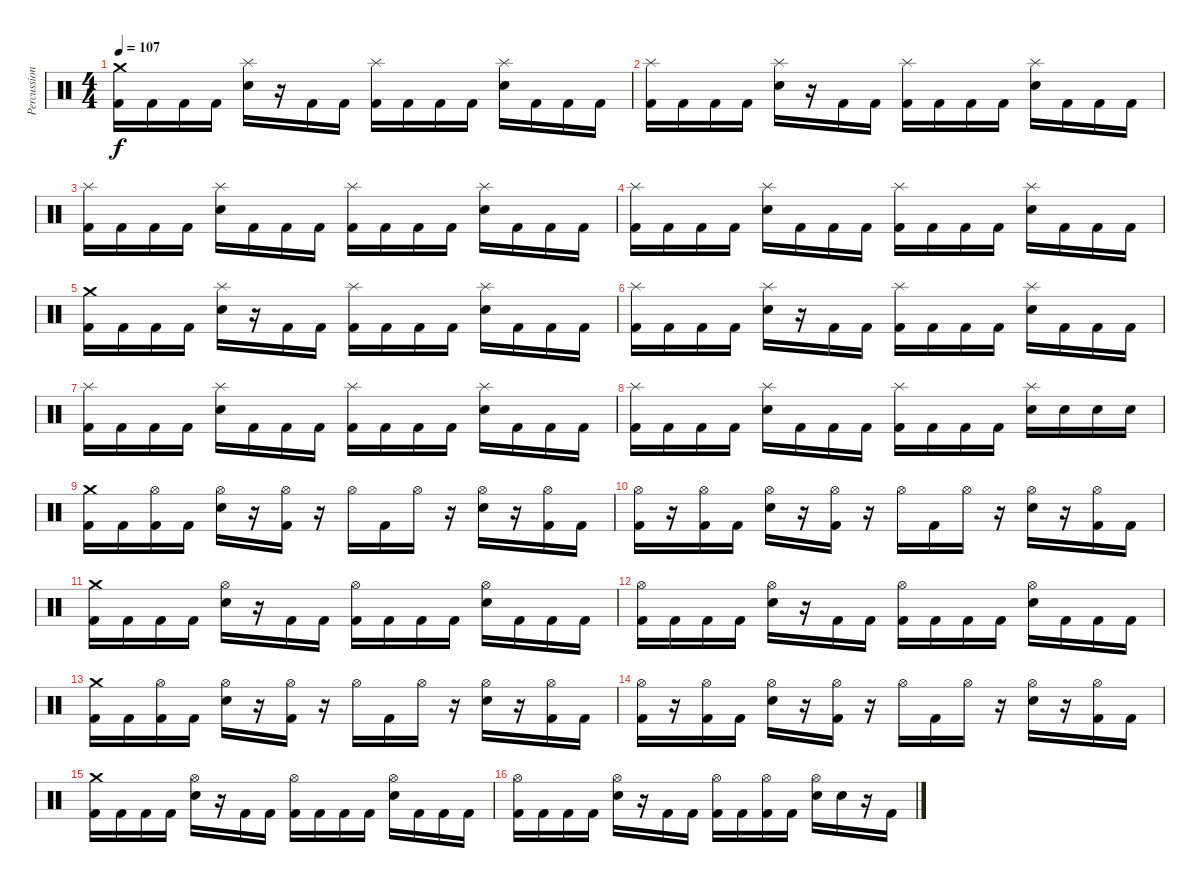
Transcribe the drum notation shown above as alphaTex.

\track ("Percussion" "Percussion") {instrument percussion}
\staff {score}
\articulation defaults
\ts (4 4)
\tempo 107
\clef neutral
\ks c
("Crash medium (hit)" "Kick (hit) 2").16{dy f} "Kick (hit) 2".16 "Kick (hit) 2".16 "Kick (hit) 2".16 ("Splash (hit)" "Electric Snare (hit)").16 r.16 "Kick (hit) 2".16 "Kick (hit) 2".16 ("Splash (hit)" "Kick (hit) 2").16 "Kick (hit) 2".16 "Kick (hit) 2".16 "Kick (hit) 2".16 ("Splash (hit)" "Electric Snare (hit)").16 "Kick (hit) 2".16 "Kick (hit) 2".16 "Kick (hit) 2".16 |
("Splash (hit)" "Kick (hit) 2").16 "Kick (hit) 2".16 "Kick (hit) 2".16 "Kick (hit) 2".16 ("Splash (hit)" "Electric Snare (hit)").16 r.16 "Kick (hit) 2".16 "Kick (hit) 2".16 ("Splash (hit)" "Kick (hit) 2").16 "Kick (hit) 2".16 "Kick (hit) 2".16 "Kick (hit) 2".16 ("Splash (hit)" "Electric Snare (hit)").16 "Kick (hit) 2".16 "Kick (hit) 2".16 "Kick (hit) 2".16 |
("Splash (hit)" "Kick (hit) 2").16 "Kick (hit) 2".16 "Kick (hit) 2".16 "Kick (hit) 2".16 ("Splash (hit)" "Electric Snare (hit)").16 "Kick (hit) 2".16 "Kick (hit) 2".16 "Kick (hit) 2".16 ("Splash (hit)" "Kick (hit) 2").16 "Kick (hit) 2".16 "Kick (hit) 2".16 "Kick (hit) 2".16 ("Splash (hit)" "Electric Snare (hit)").16 "Kick (hit) 2".16 "Kick (hit) 2".16 "Kick (hit) 2".16 |
("Splash (hit)" "Kick (hit) 2").16 "Kick (hit) 2".16 "Kick (hit) 2".16 "Kick (hit) 2".16 ("Splash (hit)" "Electric Snare (hit)").16 "Kick (hit) 2".16 "Kick (hit) 2".16 "Kick (hit) 2".16 ("Splash (hit)" "Kick (hit) 2").16 "Kick (hit) 2".16 "Kick (hit) 2".16 "Kick (hit) 2".16 ("Splash (hit)" "Electric Snare (hit)").16 "Kick (hit) 2".16 "Kick (hit) 2".16 "Kick (hit) 2".16 |
("Crash medium (hit)" "Kick (hit) 2").16 "Kick (hit) 2".16 "Kick (hit) 2".16 "Kick (hit) 2".16 ("Splash (hit)" "Electric Snare (hit)").16 r.16 "Kick (hit) 2".16 "Kick (hit) 2".16 ("Splash (hit)" "Kick (hit) 2").16 "Kick (hit) 2".16 "Kick (hit) 2".16 "Kick (hit) 2".16 ("Splash (hit)" "Electric Snare (hit)").16 "Kick (hit) 2".16 "Kick (hit) 2".16 "Kick (hit) 2".16 |
("Splash (hit)" "Kick (hit) 2").16 "Kick (hit) 2".16 "Kick (hit) 2".16 "Kick (hit) 2".16 ("Splash (hit)" "Electric Snare (hit)").16 r.16 "Kick (hit) 2".16 "Kick (hit) 2".16 ("Splash (hit)" "Kick (hit) 2").16 "Kick (hit) 2".16 "Kick (hit) 2".16 "Kick (hit) 2".16 ("Splash (hit)" "Electric Snare (hit)").16 "Kick (hit) 2".16 "Kick (hit) 2".16 "Kick (hit) 2".16 |
("Splash (hit)" "Kick (hit) 2").16 "Kick (hit) 2".16 "Kick (hit) 2".16 "Kick (hit) 2".16 ("Splash (hit)" "Electric Snare (hit)").16 "Kick (hit) 2".16 "Kick (hit) 2".16 "Kick (hit) 2".16 ("Splash (hit)" "Kick (hit) 2").16 "Kick (hit) 2".16 "Kick (hit) 2".16 "Kick (hit) 2".16 ("Splash (hit)" "Electric Snare (hit)").16 "Kick (hit) 2".16 "Kick (hit) 2".16 "Kick (hit) 2".16 |
("Splash (hit)" "Kick (hit) 2").16 "Kick (hit) 2".16 "Kick (hit) 2".16 "Kick (hit) 2".16 ("Splash (hit)" "Electric Snare (hit)").16 "Kick (hit) 2".16 "Kick (hit) 2".16 "Kick (hit) 2".16 ("Splash (hit)" "Kick (hit) 2").16 "Kick (hit) 2".16 "Kick (hit) 2".16 "Kick (hit) 2".16 ("Splash (hit)" "Electric Snare (hit)").16 "Electric Snare (hit)".16 "Electric Snare (hit)".16 "Electric Snare (hit)".16 |
("Crash medium (hit)" "Kick (hit) 2").16 "Kick (hit) 2".16 ("Hi-Hat (open)" "Kick (hit) 2").16 "Kick (hit) 2".16 ("Hi-Hat (open)" "Electric Snare (hit)").16 r.16 ("Hi-Hat (open)" "Kick (hit) 2").16 r.16 "Hi-Hat (open)".16 "Kick (hit) 2".16 "Hi-Hat (open)".16 r.16 ("Hi-Hat (open)" "Electric Snare (hit)").16 r.16 ("Hi-Hat (open)" "Kick (hit) 2").16 "Kick (hit) 2".16 |
("Hi-Hat (open)" "Kick (hit) 2").16 r.16 ("Hi-Hat (open)" "Kick (hit) 2").16 "Kick (hit) 2".16 ("Hi-Hat (open)" "Electric Snare (hit)").16 r.16 ("Hi-Hat (open)" "Kick (hit) 2").16 r.16 "Hi-Hat (open)".16 "Kick (hit) 2".16 "Hi-Hat (open)".16 r.16 ("Hi-Hat (open)" "Electric Snare (hit)").16 r.16 ("Hi-Hat (open)" "Kick (hit) 2").16 "Kick (hit) 2".16 |
("Crash medium (hit)" "Kick (hit) 2").16 "Kick (hit) 2".16 "Kick (hit) 2".16 "Kick (hit) 2".16 ("Hi-Hat (open)" "Electric Snare (hit)").16 r.16 "Kick (hit) 2".16 "Kick (hit) 2".16 ("Hi-Hat (open)" "Kick (hit) 2").16 "Kick (hit) 2".16 "Kick (hit) 2".16 "Kick (hit) 2".16 ("Hi-Hat (open)" "Electric Snare (hit)").16 "Kick (hit) 2".16 "Kick (hit) 2".16 "Kick (hit) 2".16 |
("Hi-Hat (open)" "Kick (hit) 2").16 "Kick (hit) 2".16 "Kick (hit) 2".16 "Kick (hit) 2".16 ("Hi-Hat (open)" "Electric Snare (hit)").16 r.16 "Kick (hit) 2".16 "Kick (hit) 2".16 ("Hi-Hat (open)" "Kick (hit) 2").16 "Kick (hit) 2".16 "Kick (hit) 2".16 "Kick (hit) 2".16 ("Hi-Hat (open)" "Electric Snare (hit)").16 "Kick (hit) 2".16 "Kick (hit) 2".16 "Kick (hit) 2".16 |
("Crash medium (hit)" "Kick (hit) 2").16 "Kick (hit) 2".16 ("Hi-Hat (open)" "Kick (hit) 2").16 "Kick (hit) 2".16 ("Hi-Hat (open)" "Electric Snare (hit)").16 r.16 ("Hi-Hat (open)" "Kick (hit) 2").16 r.16 "Hi-Hat (open)".16 "Kick (hit) 2".16 "Hi-Hat (open)".16 r.16 ("Hi-Hat (open)" "Electric Snare (hit)").16 r.16 ("Hi-Hat (open)" "Kick (hit) 2").16 "Kick (hit) 2".16 |
("Hi-Hat (open)" "Kick (hit) 2").16 r.16 ("Hi-Hat (open)" "Kick (hit) 2").16 "Kick (hit) 2".16 ("Hi-Hat (open)" "Electric Snare (hit)").16 r.16 ("Hi-Hat (open)" "Kick (hit) 2").16 r.16 "Hi-Hat (open)".16 "Kick (hit) 2".16 "Hi-Hat (open)".16 r.16 ("Hi-Hat (open)" "Electric Snare (hit)").16 r.16 ("Hi-Hat (open)" "Kick (hit) 2").16 "Kick (hit) 2".16 |
("Crash medium (hit)" "Kick (hit) 2").16 "Kick (hit) 2".16 "Kick (hit) 2".16 "Kick (hit) 2".16 ("Hi-Hat (open)" "Electric Snare (hit)").16 r.16 "Kick (hit) 2".16 "Kick (hit) 2".16 ("Hi-Hat (open)" "Kick (hit) 2").16 "Kick (hit) 2".16 "Kick (hit) 2".16 "Kick (hit) 2".16 ("Hi-Hat (open)" "Electric Snare (hit)").16 "Kick (hit) 2".16 "Kick (hit) 2".16 "Kick (hit) 2".16 |
("Hi-Hat (open)" "Kick (hit) 2").16 "Kick (hit) 2".16 "Kick (hit) 2".16 "Kick (hit) 2".16 ("Hi-Hat (open)" "Electric Snare (hit)").16 r.16 "Kick (hit) 2".16 "Kick (hit) 2".16 ("Hi-Hat (open)" "Kick (hit) 2").16 "Kick (hit) 2".16 ("Hi-Hat (open)" "Kick (hit) 2").16 "Kick (hit) 2".16 ("Hi-Hat (open)" "Electric Snare (hit)").16 "Electric Snare (hit)".16 r.16 "Kick (hit) 2".16
